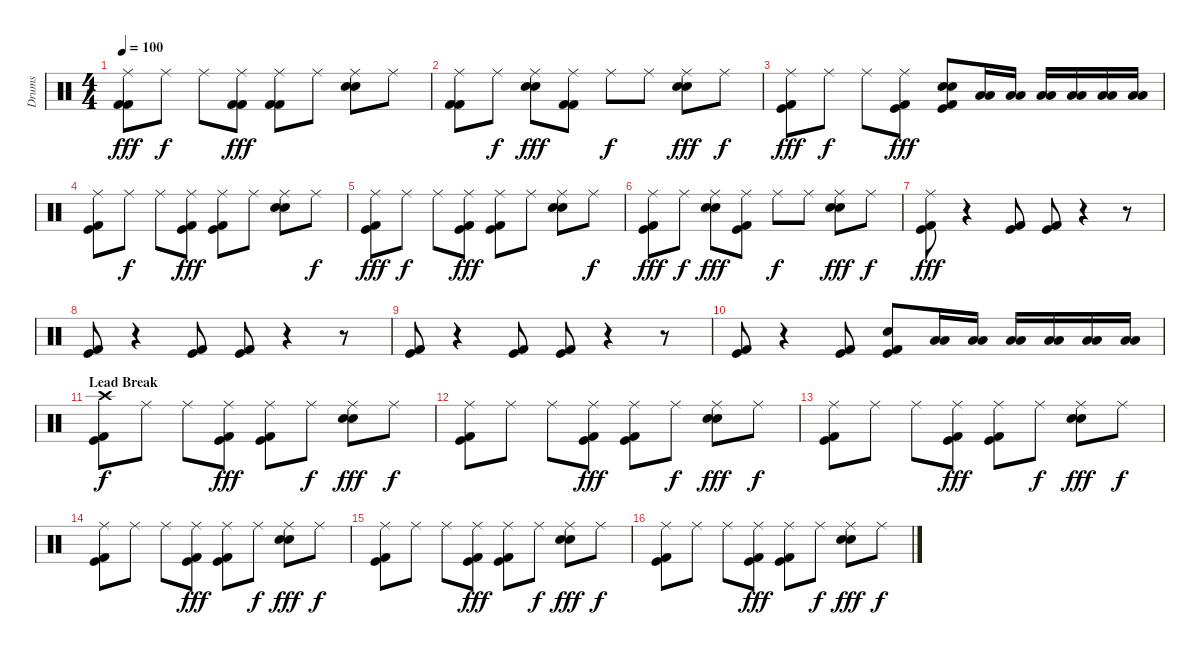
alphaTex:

\track ("Drums" "Drums") {instrument percussion}
\staff {score}
\articulation defaults
\ts (4 4)
\tempo 100
\clef neutral
\ks c
("Ride (middle)" "Kick (hit) 2" "Kick (hit) 2").8{dy fff} "Ride (middle)".8{dy f} "Ride (middle)".8 ("Ride (middle)" "Kick (hit) 2" "Kick (hit) 2").8{dy fff} ("Ride (middle)" "Kick (hit) 2" "Kick (hit) 2").8 "Ride (middle)".8 ("Ride (middle)" "Electric Snare (hit)" "Electric Snare (hit)").8 "Ride (middle)".8 |
("Ride (middle)" "Kick (hit) 2" "Kick (hit) 2").8 "Ride (middle)".8{dy f} ("Ride (middle)" "Electric Snare (hit)" "Electric Snare (hit)").8{dy fff} ("Ride (middle)" "Kick (hit) 2" "Kick (hit) 2").8 "Ride (middle)".8{dy f} "Ride (middle)".8 ("Ride (middle)" "Electric Snare (hit)" "Electric Snare (hit)").8{dy fff} "Ride (middle)".8{dy f} |
("Ride (middle)" "Kick (hit) 2" "Kick (hit)").8{dy fff} "Ride (middle)".8{dy f} "Ride (middle)".8 ("Ride (middle)" "Kick (hit) 2" "Kick (hit)").8{dy fff} ("Electric Snare (hit)" "Snare (hit) 2" "Kick (hit) 2" "Kick (hit)").8 ("Low Tom (hit)" "Low Tom (hit)").16 ("Low Tom (hit)" "Low Tom (hit)").16 ("Low Tom (hit)" "Low Tom (hit)").16 ("Low Tom (hit)" "Low Tom (hit)").16 ("Low Tom (hit)" "Low Tom (hit)").16 ("Low Tom (hit)" "Low Tom (hit)").16 |
("Ride (middle)" "Kick (hit) 2" "Kick (hit)").8 "Ride (middle)".8{dy f} "Ride (middle)".8 ("Ride (middle)" "Kick (hit) 2" "Kick (hit)").8{dy fff} ("Ride (middle)" "Kick (hit) 2" "Kick (hit)").8 "Ride (middle)".8 ("Ride (middle)" "Electric Snare (hit)" "Snare (hit) 2").8 "Ride (middle)".8{dy f} |
("Ride (middle)" "Kick (hit) 2" "Kick (hit)").8{dy fff} "Ride (middle)".8{dy f} "Ride (middle)".8 ("Ride (middle)" "Kick (hit) 2" "Kick (hit)").8{dy fff} ("Ride (middle)" "Kick (hit) 2" "Kick (hit)").8 "Ride (middle)".8 ("Ride (middle)" "Electric Snare (hit)" "Snare (hit) 2").8 "Ride (middle)".8{dy f} |
("Ride (middle)" "Kick (hit) 2" "Kick (hit)").8{dy fff} "Ride (middle)".8{dy f} ("Ride (middle)" "Electric Snare (hit)" "Snare (hit) 2").8{dy fff} ("Ride (middle)" "Kick (hit) 2" "Kick (hit)").8 "Ride (middle)".8{dy f} "Ride (middle)".8 ("Ride (middle)" "Electric Snare (hit)" "Snare (hit) 2").8{dy fff} "Ride (middle)".8{dy f} |
("Ride (middle)" "Kick (hit) 2" "Kick (hit)").8{dy fff} r.4 ("Kick (hit) 2" "Kick (hit)").8 ("Kick (hit) 2" "Kick (hit)").8 r.4 r.8 |
("Kick (hit) 2" "Kick (hit)").8 r.4 ("Kick (hit) 2" "Kick (hit)").8 ("Kick (hit) 2" "Kick (hit)").8 r.4 r.8 |
("Kick (hit) 2" "Kick (hit)").8 r.4 ("Kick (hit) 2" "Kick (hit)").8 ("Kick (hit) 2" "Kick (hit)").8 r.4 r.8 |
("Kick (hit) 2" "Kick (hit)").8 r.4 ("Kick (hit) 2" "Kick (hit)").8 ("Kick (hit) 2" "Kick (hit)" "Snare (hit) 2").8 ("Low Tom (hit)" "Low Tom (hit)").16 ("Low Tom (hit)" "Low Tom (hit)").16 ("Low Tom (hit)" "Low Tom (hit)").16 ("Low Tom (hit)" "Low Tom (hit)").16 ("Low Tom (hit)" "Low Tom (hit)").16 ("Low Tom (hit)" "Low Tom (hit)").16 |
\section ("" "Lead Break")
("Crash high (hit)" "Kick (hit) 2" "Kick (hit)").8{dy f} "Ride (middle)".8 "Ride (middle)".8 ("Ride (middle)" "Kick (hit) 2" "Kick (hit)").8{dy fff} ("Ride (middle)" "Kick (hit) 2" "Kick (hit)").8 "Ride (middle)".8{dy f} ("Ride (middle)" "Electric Snare (hit)" "Snare (hit) 2").8{dy fff} "Ride (middle)".8{dy f} |
("Ride (middle)" "Kick (hit) 2" "Kick (hit)").8 "Ride (middle)".8 "Ride (middle)".8 ("Ride (middle)" "Kick (hit) 2" "Kick (hit)").8{dy fff} ("Ride (middle)" "Kick (hit) 2" "Kick (hit)").8 "Ride (middle)".8{dy f} ("Ride (middle)" "Electric Snare (hit)" "Snare (hit) 2").8{dy fff} "Ride (middle)".8{dy f} |
("Ride (middle)" "Kick (hit) 2" "Kick (hit)").8 "Ride (middle)".8 "Ride (middle)".8 ("Ride (middle)" "Kick (hit) 2" "Kick (hit)").8{dy fff} ("Ride (middle)" "Kick (hit) 2" "Kick (hit)").8 "Ride (middle)".8{dy f} ("Ride (middle)" "Electric Snare (hit)" "Snare (hit) 2").8{dy fff} "Ride (middle)".8{dy f} |
("Ride (middle)" "Kick (hit) 2" "Kick (hit)").8 "Ride (middle)".8 "Ride (middle)".8 ("Ride (middle)" "Kick (hit) 2" "Kick (hit)").8{dy fff} ("Ride (middle)" "Kick (hit) 2" "Kick (hit)").8 "Ride (middle)".8{dy f} ("Ride (middle)" "Electric Snare (hit)" "Snare (hit) 2").8{dy fff} "Ride (middle)".8{dy f} |
("Ride (middle)" "Kick (hit) 2" "Kick (hit)").8 "Ride (middle)".8 "Ride (middle)".8 ("Ride (middle)" "Kick (hit) 2" "Kick (hit)").8{dy fff} ("Ride (middle)" "Kick (hit) 2" "Kick (hit)").8 "Ride (middle)".8{dy f} ("Ride (middle)" "Electric Snare (hit)" "Snare (hit) 2").8{dy fff} "Ride (middle)".8{dy f} |
("Ride (middle)" "Kick (hit) 2" "Kick (hit)").8 "Ride (middle)".8 "Ride (middle)".8 ("Ride (middle)" "Kick (hit) 2" "Kick (hit)").8{dy fff} ("Ride (middle)" "Kick (hit) 2" "Kick (hit)").8 "Ride (middle)".8{dy f} ("Ride (middle)" "Electric Snare (hit)" "Snare (hit) 2").8{dy fff} "Ride (middle)".8{dy f}
